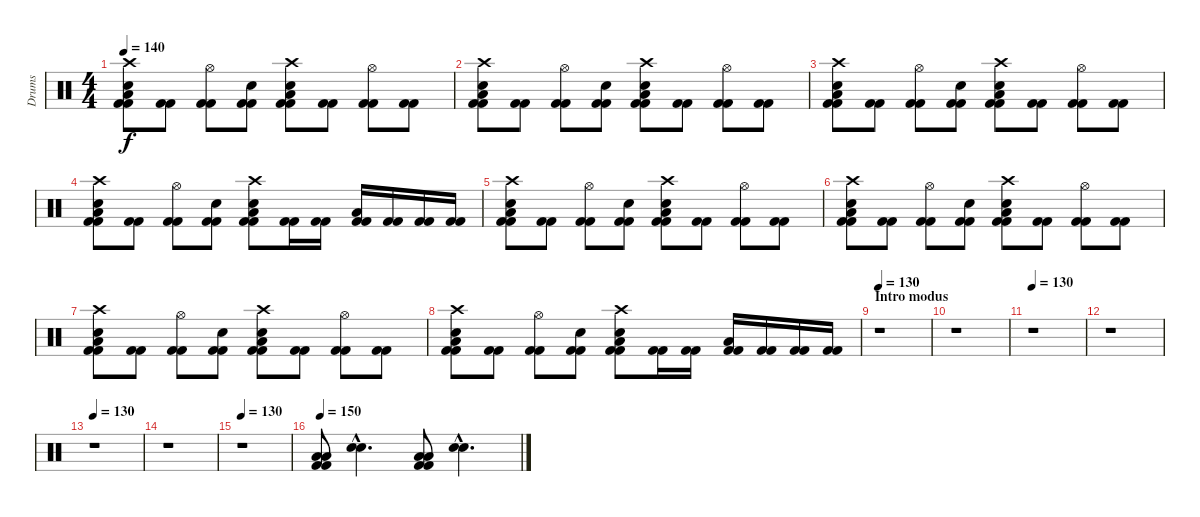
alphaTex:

\track ("Drums" "Drums") {instrument percussion}
\staff {score}
\articulation defaults
\ts (4 4)
\tempo 140
\clef neutral
\ks c
("Crash high (hit)" "Low Tom (hit)" "Snare (hit) 2" "Kick (hit) 2" "Kick (hit) 2").8{dy f} ("Kick (hit) 2" "Kick (hit) 2").8 ("Hi-Hat (open)" "Kick (hit) 2" "Kick (hit) 2").8 ("Snare (hit) 2" "Kick (hit) 2" "Kick (hit) 2").8 ("Crash high (hit)" "Snare (hit) 2" "Low Tom (hit)" "Kick (hit) 2" "Kick (hit) 2").8 ("Kick (hit) 2" "Kick (hit) 2").8 ("Hi-Hat (open)" "Kick (hit) 2" "Kick (hit) 2").8 ("Kick (hit) 2" "Kick (hit) 2").8 |
("Crash high (hit)" "Low Tom (hit)" "Snare (hit) 2" "Kick (hit) 2" "Kick (hit) 2").8 ("Kick (hit) 2" "Kick (hit) 2").8 ("Hi-Hat (open)" "Kick (hit) 2" "Kick (hit) 2").8 ("Snare (hit) 2" "Kick (hit) 2" "Kick (hit) 2").8 ("Crash high (hit)" "Snare (hit) 2" "Low Tom (hit)" "Kick (hit) 2" "Kick (hit) 2").8 ("Kick (hit) 2" "Kick (hit) 2").8 ("Hi-Hat (open)" "Kick (hit) 2" "Kick (hit) 2").8 ("Kick (hit) 2" "Kick (hit) 2").8 |
("Crash high (hit)" "Low Tom (hit)" "Snare (hit) 2" "Kick (hit) 2" "Kick (hit) 2").8 ("Kick (hit) 2" "Kick (hit) 2").8 ("Hi-Hat (open)" "Kick (hit) 2" "Kick (hit) 2").8 ("Snare (hit) 2" "Kick (hit) 2" "Kick (hit) 2").8 ("Crash high (hit)" "Snare (hit) 2" "Low Tom (hit)" "Kick (hit) 2" "Kick (hit) 2").8 ("Kick (hit) 2" "Kick (hit) 2").8 ("Hi-Hat (open)" "Kick (hit) 2" "Kick (hit) 2").8 ("Kick (hit) 2" "Kick (hit) 2").8 |
("Crash high (hit)" "Low Tom (hit)" "Snare (hit) 2" "Kick (hit) 2" "Kick (hit) 2").8 ("Kick (hit) 2" "Kick (hit) 2").8 ("Hi-Hat (open)" "Kick (hit) 2" "Kick (hit) 2").8 ("Snare (hit) 2" "Kick (hit) 2" "Kick (hit) 2").8 ("Crash high (hit)" "Snare (hit) 2" "Low Tom (hit)" "Kick (hit) 2" "Kick (hit) 2").8 ("Kick (hit) 2" "Kick (hit) 2").16 ("Kick (hit) 2" "Kick (hit) 2").16 ("Low Tom (hit)" "Kick (hit) 2" "Kick (hit) 2").16 ("Kick (hit) 2" "Kick (hit) 2").16 ("Kick (hit) 2" "Kick (hit) 2").16 ("Kick (hit) 2" "Kick (hit) 2").16 |
("Crash high (hit)" "Low Tom (hit)" "Snare (hit) 2" "Kick (hit) 2" "Kick (hit) 2").8 ("Kick (hit) 2" "Kick (hit) 2").8 ("Hi-Hat (open)" "Kick (hit) 2" "Kick (hit) 2").8 ("Snare (hit) 2" "Kick (hit) 2" "Kick (hit) 2").8 ("Crash high (hit)" "Snare (hit) 2" "Low Tom (hit)" "Kick (hit) 2" "Kick (hit) 2").8 ("Kick (hit) 2" "Kick (hit) 2").8 ("Hi-Hat (open)" "Kick (hit) 2" "Kick (hit) 2").8 ("Kick (hit) 2" "Kick (hit) 2").8 |
("Crash high (hit)" "Low Tom (hit)" "Snare (hit) 2" "Kick (hit) 2" "Kick (hit) 2").8 ("Kick (hit) 2" "Kick (hit) 2").8 ("Hi-Hat (open)" "Kick (hit) 2" "Kick (hit) 2").8 ("Snare (hit) 2" "Kick (hit) 2" "Kick (hit) 2").8 ("Crash high (hit)" "Snare (hit) 2" "Low Tom (hit)" "Kick (hit) 2" "Kick (hit) 2").8 ("Kick (hit) 2" "Kick (hit) 2").8 ("Hi-Hat (open)" "Kick (hit) 2" "Kick (hit) 2").8 ("Kick (hit) 2" "Kick (hit) 2").8 |
("Crash high (hit)" "Low Tom (hit)" "Snare (hit) 2" "Kick (hit) 2" "Kick (hit) 2").8 ("Kick (hit) 2" "Kick (hit) 2").8 ("Hi-Hat (open)" "Kick (hit) 2" "Kick (hit) 2").8 ("Snare (hit) 2" "Kick (hit) 2" "Kick (hit) 2").8 ("Crash high (hit)" "Snare (hit) 2" "Low Tom (hit)" "Kick (hit) 2" "Kick (hit) 2").8 ("Kick (hit) 2" "Kick (hit) 2").8 ("Hi-Hat (open)" "Kick (hit) 2" "Kick (hit) 2").8 ("Kick (hit) 2" "Kick (hit) 2").8 |
("Crash high (hit)" "Low Tom (hit)" "Snare (hit) 2" "Kick (hit) 2" "Kick (hit) 2").8 ("Kick (hit) 2" "Kick (hit) 2").8 ("Hi-Hat (open)" "Kick (hit) 2" "Kick (hit) 2").8 ("Snare (hit) 2" "Kick (hit) 2" "Kick (hit) 2").8 ("Crash high (hit)" "Snare (hit) 2" "Low Tom (hit)" "Kick (hit) 2" "Kick (hit) 2").8 ("Kick (hit) 2" "Kick (hit) 2").16 ("Kick (hit) 2" "Kick (hit) 2").16 ("Low Tom (hit)" "Kick (hit) 2" "Kick (hit) 2").16 ("Kick (hit) 2" "Kick (hit) 2").16 ("Kick (hit) 2" "Kick (hit) 2").16 ("Kick (hit) 2" "Kick (hit) 2").16 |
\section ("" "Intro modus")
\tempo 130
r.1 |
r.1 |
\tempo 130
r.1 |
r.1 |
\tempo 130
r.1 |
r.1 |
\tempo 130
r.1 |
\tempo 150
("Low Tom (hit)" "Low Tom (hit)" "Kick (hit) 2" "Kick (hit) 2").8 ("Snare (hit) 2"{hac} "Snare (hit) 2"{hac}).4{d} ("Low Tom (hit)" "Low Tom (hit)" "Kick (hit) 2" "Kick (hit) 2").8 ("Snare (hit) 2"{hac} "Snare (hit) 2"{hac}).4{d}
